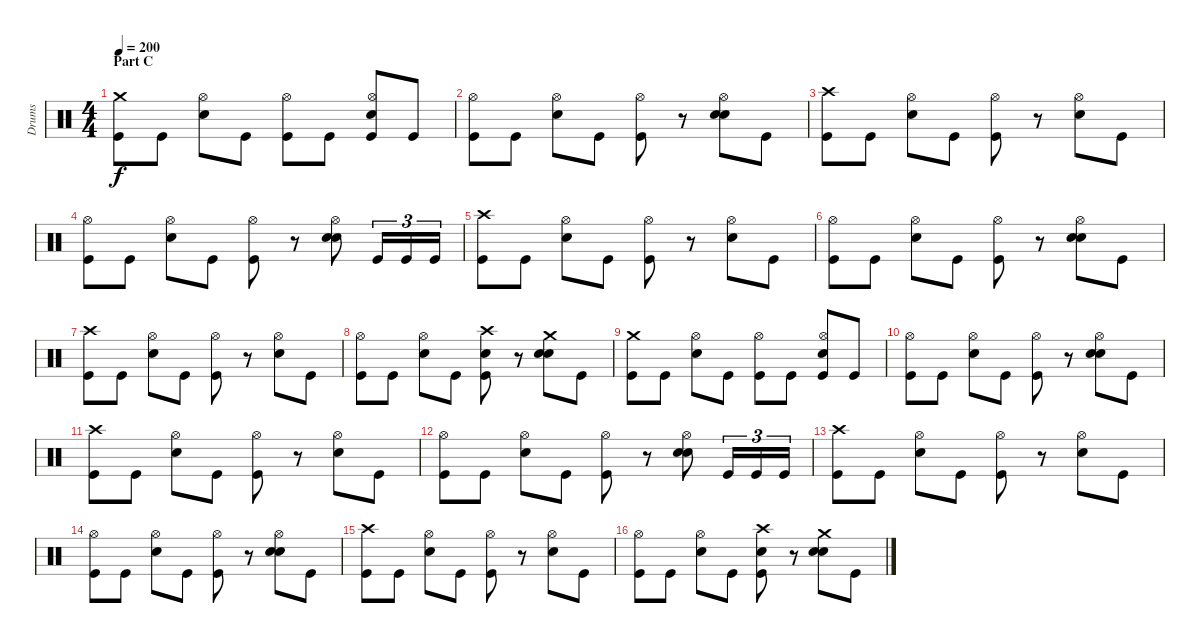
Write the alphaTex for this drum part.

\track ("Drums" "Drums") {instrument percussion}
\staff {score}
\articulation defaults
\ts (4 4)
\section ("" "Part C")
\tempo 200
\clef neutral
\ks c
("Crash medium (hit)" "Kick (hit)").8{dy f} "Kick (hit)".8 ("Hi-Hat (open)" "Snare (hit) 2").8 "Kick (hit)".8 ("Hi-Hat (open)" "Kick (hit)").8 "Kick (hit)".8 ("Hi-Hat (open)" "Snare (hit) 2" "Kick (hit)").8 "Kick (hit)".8 |
("Hi-Hat (open)" "Kick (hit)").8 "Kick (hit)".8 ("Hi-Hat (open)" "Snare (hit) 2").8 "Kick (hit)".8 ("Hi-Hat (open)" "Kick (hit)").8 r.8 ("Hi-Hat (open)" "Hand Clap (hit)" "Snare (hit) 2").8 "Kick (hit)".8 |
("Crash high (hit)" "Kick (hit)").8 "Kick (hit)".8 ("Hi-Hat (open)" "Snare (hit) 2").8 "Kick (hit)".8 ("Hi-Hat (open)" "Kick (hit)").8 r.8 ("Hi-Hat (open)" "Snare (hit) 2").8 "Kick (hit)".8 |
("Hi-Hat (open)" "Kick (hit)").8 "Kick (hit)".8 ("Hi-Hat (open)" "Snare (hit) 2").8 "Kick (hit)".8 ("Hi-Hat (open)" "Kick (hit)").8 r.8 ("Hi-Hat (open)" "Hand Clap (hit)" "Snare (hit) 2").8 "Kick (hit)".16{tu (3 2)} "Kick (hit)".16{tu (3 2)} "Kick (hit)".16{tu (3 2)} |
("Crash high (hit)" "Kick (hit)").8 "Kick (hit)".8 ("Hi-Hat (open)" "Snare (hit) 2").8 "Kick (hit)".8 ("Hi-Hat (open)" "Kick (hit)").8 r.8 ("Hi-Hat (open)" "Snare (hit) 2").8 "Kick (hit)".8 |
("Hi-Hat (open)" "Kick (hit)").8 "Kick (hit)".8 ("Hi-Hat (open)" "Snare (hit) 2").8 "Kick (hit)".8 ("Hi-Hat (open)" "Kick (hit)").8 r.8 ("Hi-Hat (open)" "Hand Clap (hit)" "Snare (hit) 2").8 "Kick (hit)".8 |
("Crash high (hit)" "Kick (hit)").8 "Kick (hit)".8 ("Hi-Hat (open)" "Snare (hit) 2").8 "Kick (hit)".8 ("Hi-Hat (open)" "Kick (hit)").8 r.8 ("Hi-Hat (open)" "Snare (hit) 2").8 "Kick (hit)".8 |
("Hi-Hat (open)" "Kick (hit)").8 "Kick (hit)".8 ("Hi-Hat (open)" "Snare (hit) 2").8 "Kick (hit)".8 ("Crash high (hit)" "Hand Clap (hit)" "Kick (hit)").8 r.8 ("Crash medium (hit)" "Hand Clap (hit)" "Snare (hit) 2").8 "Kick (hit)".8 |
("Crash medium (hit)" "Kick (hit)").8 "Kick (hit)".8 ("Hi-Hat (open)" "Snare (hit) 2").8 "Kick (hit)".8 ("Hi-Hat (open)" "Kick (hit)").8 "Kick (hit)".8 ("Hi-Hat (open)" "Snare (hit) 2" "Kick (hit)").8 "Kick (hit)".8 |
("Hi-Hat (open)" "Kick (hit)").8 "Kick (hit)".8 ("Hi-Hat (open)" "Snare (hit) 2").8 "Kick (hit)".8 ("Hi-Hat (open)" "Kick (hit)").8 r.8 ("Hi-Hat (open)" "Hand Clap (hit)" "Snare (hit) 2").8 "Kick (hit)".8 |
("Crash high (hit)" "Kick (hit)").8 "Kick (hit)".8 ("Hi-Hat (open)" "Snare (hit) 2").8 "Kick (hit)".8 ("Hi-Hat (open)" "Kick (hit)").8 r.8 ("Hi-Hat (open)" "Snare (hit) 2").8 "Kick (hit)".8 |
("Hi-Hat (open)" "Kick (hit)").8 "Kick (hit)".8 ("Hi-Hat (open)" "Snare (hit) 2").8 "Kick (hit)".8 ("Hi-Hat (open)" "Kick (hit)").8 r.8 ("Hi-Hat (open)" "Hand Clap (hit)" "Snare (hit) 2").8 "Kick (hit)".16{tu (3 2)} "Kick (hit)".16{tu (3 2)} "Kick (hit)".16{tu (3 2)} |
("Crash high (hit)" "Kick (hit)").8 "Kick (hit)".8 ("Hi-Hat (open)" "Snare (hit) 2").8 "Kick (hit)".8 ("Hi-Hat (open)" "Kick (hit)").8 r.8 ("Hi-Hat (open)" "Snare (hit) 2").8 "Kick (hit)".8 |
("Hi-Hat (open)" "Kick (hit)").8 "Kick (hit)".8 ("Hi-Hat (open)" "Snare (hit) 2").8 "Kick (hit)".8 ("Hi-Hat (open)" "Kick (hit)").8 r.8 ("Hi-Hat (open)" "Hand Clap (hit)" "Snare (hit) 2").8 "Kick (hit)".8 |
("Crash high (hit)" "Kick (hit)").8 "Kick (hit)".8 ("Hi-Hat (open)" "Snare (hit) 2").8 "Kick (hit)".8 ("Hi-Hat (open)" "Kick (hit)").8 r.8 ("Hi-Hat (open)" "Snare (hit) 2").8 "Kick (hit)".8 |
("Hi-Hat (open)" "Kick (hit)").8 "Kick (hit)".8 ("Hi-Hat (open)" "Snare (hit) 2").8 "Kick (hit)".8 ("Crash high (hit)" "Hand Clap (hit)" "Kick (hit)").8 r.8 ("Crash medium (hit)" "Hand Clap (hit)" "Snare (hit) 2").8 "Kick (hit)".8
